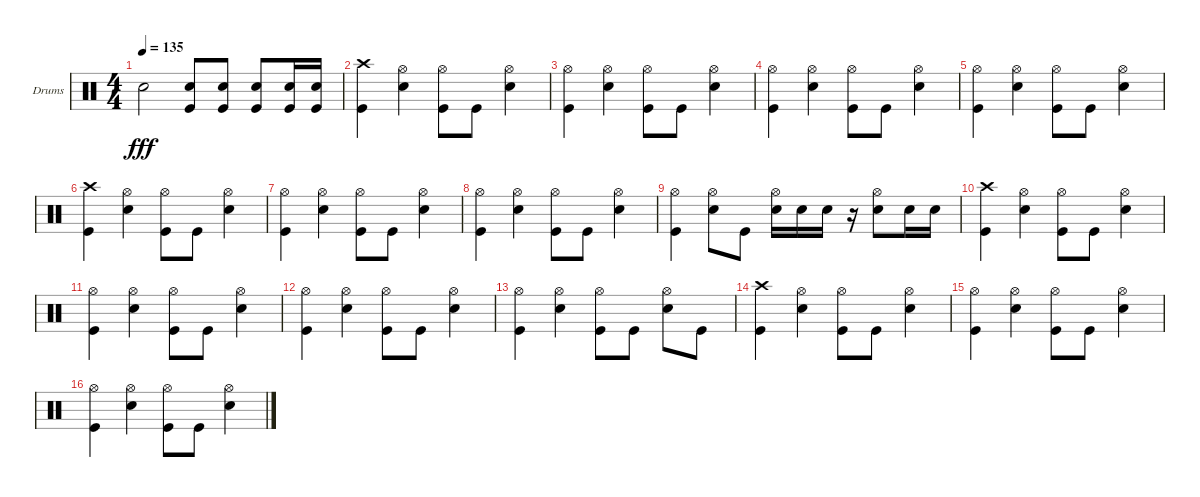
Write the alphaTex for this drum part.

\bracketExtendMode groupsimilarinstruments
\firstSystemTrackNameOrientation horizontal
\otherSystemsTrackNameOrientation horizontal
\track ("Drumkit" "Drums") {instrument percussion}
\staff {score}
\articulation defaults
\ts (4 4)
\tempo 135
\clef neutral
\ks c "Snare (hit) 2".2{dy fff}
("Kick (hit)" "Snare (hit) 2").8 ("Kick (hit)" "Snare (hit) 2").8 ("Kick (hit)" "Snare (hit) 2").8 ("Kick (hit)" "Snare (hit) 2").16 ("Kick (hit)" "Snare (hit) 2").16 |
("Kick (hit)" "Crash high (hit)").4 ("Hi-Hat (open)" "Snare (hit) 2").4 ("Kick (hit)" "Hi-Hat (open)").8 "Kick (hit)".8 ("Hi-Hat (open)" "Snare (hit) 2").4 |
("Kick (hit)" "Hi-Hat (open)").4 ("Hi-Hat (open)" "Snare (hit) 2").4 ("Kick (hit)" "Hi-Hat (open)").8 "Kick (hit)".8 ("Hi-Hat (open)" "Snare (hit) 2").4 |
("Kick (hit)" "Hi-Hat (open)").4 ("Hi-Hat (open)" "Snare (hit) 2").4 ("Kick (hit)" "Hi-Hat (open)").8 "Kick (hit)".8 ("Hi-Hat (open)" "Snare (hit) 2").4 |
("Kick (hit)" "Hi-Hat (open)").4 ("Hi-Hat (open)" "Snare (hit) 2").4 ("Kick (hit)" "Hi-Hat (open)").8 "Kick (hit)".8 ("Hi-Hat (open)" "Snare (hit) 2").4 |
("Kick (hit)" "Crash high (hit)").4 ("Hi-Hat (open)" "Snare (hit) 2").4 ("Kick (hit)" "Hi-Hat (open)").8 "Kick (hit)".8 ("Hi-Hat (open)" "Snare (hit) 2").4 |
("Kick (hit)" "Hi-Hat (open)").4 ("Hi-Hat (open)" "Snare (hit) 2").4 ("Kick (hit)" "Hi-Hat (open)").8 "Kick (hit)".8 ("Hi-Hat (open)" "Snare (hit) 2").4 |
("Kick (hit)" "Hi-Hat (open)").4 ("Hi-Hat (open)" "Snare (hit) 2").4 ("Kick (hit)" "Hi-Hat (open)").8 "Kick (hit)".8 ("Hi-Hat (open)" "Snare (hit) 2").4 |
("Kick (hit)" "Hi-Hat (open)").4 ("Hi-Hat (open)" "Snare (hit) 2").8 "Kick (hit)".8 ("Hi-Hat (open)" "Snare (hit) 2").16 "Snare (hit) 2".16 "Snare (hit) 2".16 r.16 ("Hi-Hat (open)" "Snare (hit) 2").8 "Snare (hit) 2".16 "Snare (hit) 2".16 |
("Kick (hit)" "Crash high (hit)").4 ("Hi-Hat (open)" "Snare (hit) 2").4 ("Kick (hit)" "Hi-Hat (open)").8 "Kick (hit)".8 ("Hi-Hat (open)" "Snare (hit) 2").4 |
("Kick (hit)" "Hi-Hat (open)").4 ("Hi-Hat (open)" "Snare (hit) 2").4 ("Kick (hit)" "Hi-Hat (open)").8 "Kick (hit)".8 ("Hi-Hat (open)" "Snare (hit) 2").4 |
("Kick (hit)" "Hi-Hat (open)").4 ("Hi-Hat (open)" "Snare (hit) 2").4 ("Kick (hit)" "Hi-Hat (open)").8 "Kick (hit)".8 ("Hi-Hat (open)" "Snare (hit) 2").4 |
("Kick (hit)" "Hi-Hat (open)").4 ("Hi-Hat (open)" "Snare (hit) 2").4 ("Kick (hit)" "Hi-Hat (open)").8 "Kick (hit)".8 ("Hi-Hat (open)" "Snare (hit) 2").8 "Kick (hit)".8 |
("Kick (hit)" "Crash high (hit)").4 ("Hi-Hat (open)" "Snare (hit) 2").4 ("Kick (hit)" "Hi-Hat (open)").8 "Kick (hit)".8 ("Hi-Hat (open)" "Snare (hit) 2").4 |
("Kick (hit)" "Hi-Hat (open)").4 ("Hi-Hat (open)" "Snare (hit) 2").4 ("Kick (hit)" "Hi-Hat (open)").8 "Kick (hit)".8 ("Hi-Hat (open)" "Snare (hit) 2").4 |
("Kick (hit)" "Hi-Hat (open)").4 ("Hi-Hat (open)" "Snare (hit) 2").4 ("Kick (hit)" "Hi-Hat (open)").8 "Kick (hit)".8 ("Hi-Hat (open)" "Snare (hit) 2").4
